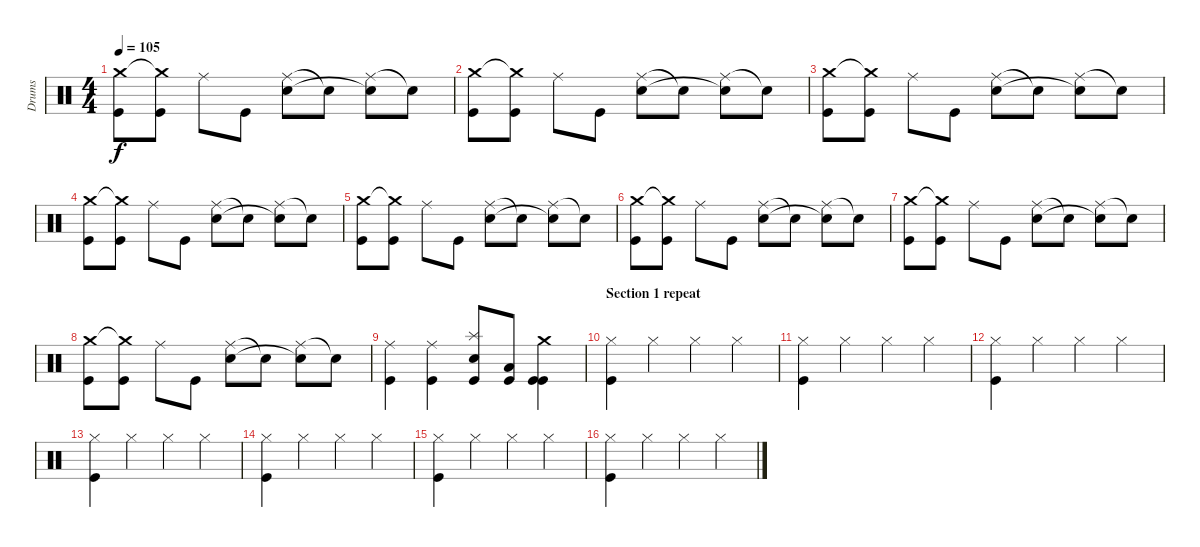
\track ("Drums" "Drums") {instrument percussion}
\staff {score}
\articulation defaults
\ts (4 4)
\tempo 105
\clef neutral
\ks c
("Crash medium (hit)" "Kick (hit)").8{dy f} ("Crash medium (hit)"{t} "Kick (hit)").8 "Ride (middle)".8 "Kick (hit)".8 ("Ride (middle)" "Snare (hit) 2").8 "Snare (hit) 2"{t}.8 ("Ride (middle)" "Snare (hit) 2"{t}).8 "Snare (hit) 2"{t}.8 |
("Crash medium (hit)" "Kick (hit)").8 ("Crash medium (hit)"{t} "Kick (hit)").8 "Ride (middle)".8 "Kick (hit)".8 ("Ride (middle)" "Snare (hit) 2").8 "Snare (hit) 2"{t}.8 ("Ride (middle)" "Snare (hit) 2"{t}).8 "Snare (hit) 2"{t}.8 |
("Crash medium (hit)" "Kick (hit)").8 ("Crash medium (hit)"{t} "Kick (hit)").8 "Ride (middle)".8 "Kick (hit)".8 ("Ride (middle)" "Snare (hit) 2").8 "Snare (hit) 2"{t}.8 ("Ride (middle)" "Snare (hit) 2"{t}).8 "Snare (hit) 2"{t}.8 |
("Crash medium (hit)" "Kick (hit)").8 ("Crash medium (hit)"{t} "Kick (hit)").8 "Ride (middle)".8 "Kick (hit)".8 ("Ride (middle)" "Snare (hit) 2").8 "Snare (hit) 2"{t}.8 ("Ride (middle)" "Snare (hit) 2"{t}).8 "Snare (hit) 2"{t}.8 |
("Crash medium (hit)" "Kick (hit)").8 ("Crash medium (hit)"{t} "Kick (hit)").8 "Ride (middle)".8 "Kick (hit)".8 ("Ride (middle)" "Snare (hit) 2").8 "Snare (hit) 2"{t}.8 ("Ride (middle)" "Snare (hit) 2"{t}).8 "Snare (hit) 2"{t}.8 |
("Crash medium (hit)" "Kick (hit)").8 ("Crash medium (hit)"{t} "Kick (hit)").8 "Ride (middle)".8 "Kick (hit)".8 ("Ride (middle)" "Snare (hit) 2").8 "Snare (hit) 2"{t}.8 ("Ride (middle)" "Snare (hit) 2"{t}).8 "Snare (hit) 2"{t}.8 |
("Crash medium (hit)" "Kick (hit)").8 ("Crash medium (hit)"{t} "Kick (hit)").8 "Ride (middle)".8 "Kick (hit)".8 ("Ride (middle)" "Snare (hit) 2").8 "Snare (hit) 2"{t}.8 ("Ride (middle)" "Snare (hit) 2"{t}).8 "Snare (hit) 2"{t}.8 |
("Crash medium (hit)" "Kick (hit)").8 ("Crash medium (hit)"{t} "Kick (hit)").8 "Ride (middle)".8 "Kick (hit)".8 ("Ride (middle)" "Snare (hit) 2").8 "Snare (hit) 2"{t}.8 ("Ride (middle)" "Snare (hit) 2"{t}).8 "Snare (hit) 2"{t}.8 |
("Ride (middle)" "Kick (hit)").4 ("Ride (middle)" "Kick (hit)").4 ("Splash (hit)" "Electric Snare (hit)" "Kick (hit)").8 ("Low Tom (hit)" "Kick (hit)").8 ("Crash medium (hit)" "Kick (hit)" "Kick (hit)").4 |
\section ("" "Section 1 repeat")
("Hi-Hat (closed)" "Kick (hit)").4 "Hi-Hat (closed)".4 "Hi-Hat (closed)".4 "Hi-Hat (closed)".4 |
("Hi-Hat (closed)" "Kick (hit)").4 "Hi-Hat (closed)".4 "Hi-Hat (closed)".4 "Hi-Hat (closed)".4 |
("Hi-Hat (closed)" "Kick (hit)").4 "Hi-Hat (closed)".4 "Hi-Hat (closed)".4 "Hi-Hat (closed)".4 |
("Hi-Hat (closed)" "Kick (hit)").4 "Hi-Hat (closed)".4 "Hi-Hat (closed)".4 "Hi-Hat (closed)".4 |
("Hi-Hat (closed)" "Kick (hit)").4 "Hi-Hat (closed)".4 "Hi-Hat (closed)".4 "Hi-Hat (closed)".4 |
("Hi-Hat (closed)" "Kick (hit)").4 "Hi-Hat (closed)".4 "Hi-Hat (closed)".4 "Hi-Hat (closed)".4 |
("Hi-Hat (closed)" "Kick (hit)").4 "Hi-Hat (closed)".4 "Hi-Hat (closed)".4 "Hi-Hat (closed)".4
